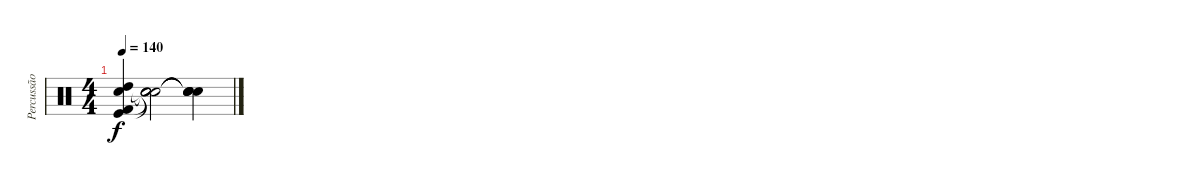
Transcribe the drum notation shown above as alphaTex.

\track ("Percussão" "Percussão") {instrument percussion}
\staff {score}
\articulation defaults
\ts (4 4)
\tempo 140
\clef neutral
\ks c
("Snare (hit) 2" "Kick (hit) 2" "High Tom (hit)" "Kick (hit)").4{dy f} ("Snare (hit)"{t} "Snare (hit)"{t} "Snare (hit)"{t} "Snare (hit)"{t}).2 ("Snare (hit)"{t} "Snare (hit)"{t} "Snare (hit)"{t} "Snare (hit)"{t}).4
